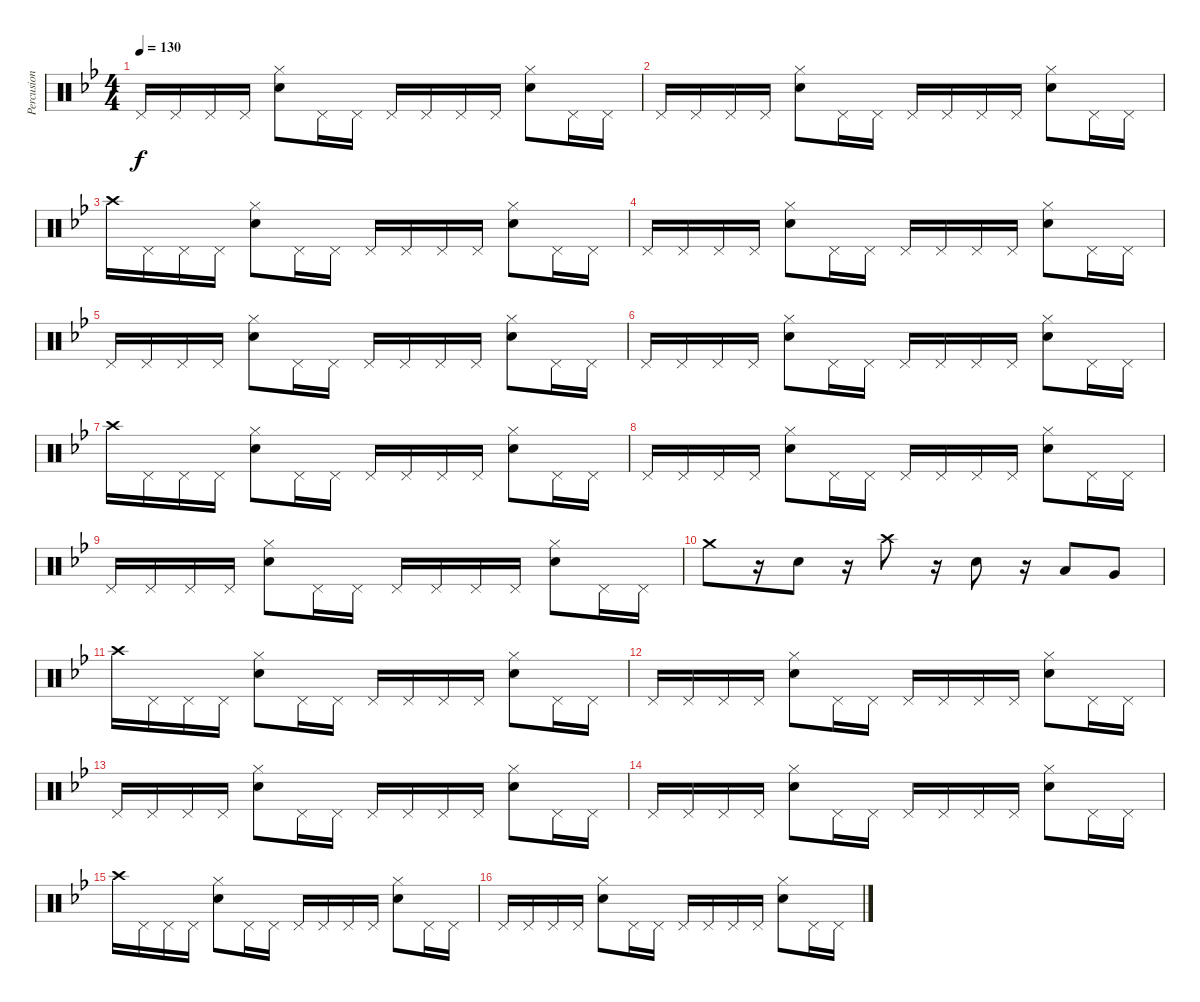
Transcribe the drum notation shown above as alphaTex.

\track ("Percusion I" "Percusion ") {instrument percussion}
\staff {score}
\articulation defaults
\ts (4 4)
\tempo 130
\clef neutral
\ks gminor "Pedal Hi-Hat (hit)".16{dy f} "Pedal Hi-Hat (hit)".16 "Pedal Hi-Hat (hit)".16 "Pedal Hi-Hat (hit)".16
("Hi-Hat (closed)" "Snare (hit) 2").8 "Pedal Hi-Hat (hit)".16 "Pedal Hi-Hat (hit)".16 "Pedal Hi-Hat (hit)".16 "Pedal Hi-Hat (hit)".16 "Pedal Hi-Hat (hit)".16 "Pedal Hi-Hat (hit)".16 ("Snare (hit) 2" "Hi-Hat (closed)").8 "Pedal Hi-Hat (hit)".16 "Pedal Hi-Hat (hit)".16 |
"Pedal Hi-Hat (hit)".16 "Pedal Hi-Hat (hit)".16 "Pedal Hi-Hat (hit)".16 "Pedal Hi-Hat (hit)".16 ("Hi-Hat (closed)" "Snare (hit) 2").8 "Pedal Hi-Hat (hit)".16 "Pedal Hi-Hat (hit)".16 "Pedal Hi-Hat (hit)".16 "Pedal Hi-Hat (hit)".16 "Pedal Hi-Hat (hit)".16 "Pedal Hi-Hat (hit)".16 ("Snare (hit) 2" "Hi-Hat (closed)").8 "Pedal Hi-Hat (hit)".16 "Pedal Hi-Hat (hit)".16 |
"Crash high (hit)".16 "Pedal Hi-Hat (hit)".16 "Pedal Hi-Hat (hit)".16 "Pedal Hi-Hat (hit)".16 ("Snare (hit) 2" "Hi-Hat (closed)").8 "Pedal Hi-Hat (hit)".16 "Pedal Hi-Hat (hit)".16 "Pedal Hi-Hat (hit)".16 "Pedal Hi-Hat (hit)".16 "Pedal Hi-Hat (hit)".16 "Pedal Hi-Hat (hit)".16 ("Snare (hit) 2" "Hi-Hat (closed)").8 "Pedal Hi-Hat (hit)".16 "Pedal Hi-Hat (hit)".16 |
"Pedal Hi-Hat (hit)".16 "Pedal Hi-Hat (hit)".16 "Pedal Hi-Hat (hit)".16 "Pedal Hi-Hat (hit)".16 ("Hi-Hat (closed)" "Snare (hit) 2").8 "Pedal Hi-Hat (hit)".16 "Pedal Hi-Hat (hit)".16 "Pedal Hi-Hat (hit)".16 "Pedal Hi-Hat (hit)".16 "Pedal Hi-Hat (hit)".16 "Pedal Hi-Hat (hit)".16 ("Snare (hit) 2" "Hi-Hat (closed)").8 "Pedal Hi-Hat (hit)".16 "Pedal Hi-Hat (hit)".16 |
"Pedal Hi-Hat (hit)".16 "Pedal Hi-Hat (hit)".16 "Pedal Hi-Hat (hit)".16 "Pedal Hi-Hat (hit)".16 ("Hi-Hat (closed)" "Snare (hit) 2").8 "Pedal Hi-Hat (hit)".16 "Pedal Hi-Hat (hit)".16 "Pedal Hi-Hat (hit)".16 "Pedal Hi-Hat (hit)".16 "Pedal Hi-Hat (hit)".16 "Pedal Hi-Hat (hit)".16 ("Snare (hit) 2" "Hi-Hat (closed)").8 "Pedal Hi-Hat (hit)".16 "Pedal Hi-Hat (hit)".16 |
"Pedal Hi-Hat (hit)".16 "Pedal Hi-Hat (hit)".16 "Pedal Hi-Hat (hit)".16 "Pedal Hi-Hat (hit)".16 ("Snare (hit) 2" "Hi-Hat (closed)").8 "Pedal Hi-Hat (hit)".16 "Pedal Hi-Hat (hit)".16 "Pedal Hi-Hat (hit)".16 "Pedal Hi-Hat (hit)".16 "Pedal Hi-Hat (hit)".16 "Pedal Hi-Hat (hit)".16 ("Snare (hit) 2" "Hi-Hat (closed)").8 "Pedal Hi-Hat (hit)".16 "Pedal Hi-Hat (hit)".16 |
"Crash high (hit)".16 "Pedal Hi-Hat (hit)".16 "Pedal Hi-Hat (hit)".16 "Pedal Hi-Hat (hit)".16 ("Snare (hit) 2" "Hi-Hat (closed)").8 "Pedal Hi-Hat (hit)".16 "Pedal Hi-Hat (hit)".16 "Pedal Hi-Hat (hit)".16 "Pedal Hi-Hat (hit)".16 "Pedal Hi-Hat (hit)".16 "Pedal Hi-Hat (hit)".16 ("Hi-Hat (closed)" "Snare (hit) 2").8 "Pedal Hi-Hat (hit)".16 "Pedal Hi-Hat (hit)".16 |
"Pedal Hi-Hat (hit)".16 "Pedal Hi-Hat (hit)".16 "Pedal Hi-Hat (hit)".16 "Pedal Hi-Hat (hit)".16 ("Hi-Hat (closed)" "Snare (hit) 2").8 "Pedal Hi-Hat (hit)".16 "Pedal Hi-Hat (hit)".16 "Pedal Hi-Hat (hit)".16 "Pedal Hi-Hat (hit)".16 "Pedal Hi-Hat (hit)".16 "Pedal Hi-Hat (hit)".16 ("Hi-Hat (closed)" "Snare (hit) 2").8 "Pedal Hi-Hat (hit)".16 "Pedal Hi-Hat (hit)".16 |
"Pedal Hi-Hat (hit)".16 "Pedal Hi-Hat (hit)".16 "Pedal Hi-Hat (hit)".16 "Pedal Hi-Hat (hit)".16 ("Hi-Hat (closed)" "Snare (hit) 2").8 "Pedal Hi-Hat (hit)".16 "Pedal Hi-Hat (hit)".16 "Pedal Hi-Hat (hit)".16 "Pedal Hi-Hat (hit)".16 "Pedal Hi-Hat (hit)".16 "Pedal Hi-Hat (hit)".16 ("Snare (hit) 2" "Hi-Hat (closed)").8 "Pedal Hi-Hat (hit)".16 "Pedal Hi-Hat (hit)".16 |
"Crash medium (hit)".8 r.16 "Snare (hit) 2".8 r.16 "Crash high (hit)".8 r.16 "Snare (hit) 2".8 r.16 "Low Tom (hit)".8 "Very Low Tom (hit)".8 |
"Crash high (hit)".16 "Pedal Hi-Hat (hit)".16 "Pedal Hi-Hat (hit)".16 "Pedal Hi-Hat (hit)".16 ("Snare (hit) 2" "Hi-Hat (closed)").8 "Pedal Hi-Hat (hit)".16 "Pedal Hi-Hat (hit)".16 "Pedal Hi-Hat (hit)".16 "Pedal Hi-Hat (hit)".16 "Pedal Hi-Hat (hit)".16 "Pedal Hi-Hat (hit)".16 ("Snare (hit) 2" "Hi-Hat (closed)").8 "Pedal Hi-Hat (hit)".16 "Pedal Hi-Hat (hit)".16 |
"Pedal Hi-Hat (hit)".16 "Pedal Hi-Hat (hit)".16 "Pedal Hi-Hat (hit)".16 "Pedal Hi-Hat (hit)".16 ("Hi-Hat (closed)" "Snare (hit) 2").8 "Pedal Hi-Hat (hit)".16 "Pedal Hi-Hat (hit)".16 "Pedal Hi-Hat (hit)".16 "Pedal Hi-Hat (hit)".16 "Pedal Hi-Hat (hit)".16 "Pedal Hi-Hat (hit)".16 ("Snare (hit) 2" "Hi-Hat (closed)").8 "Pedal Hi-Hat (hit)".16 "Pedal Hi-Hat (hit)".16 |
"Pedal Hi-Hat (hit)".16 "Pedal Hi-Hat (hit)".16 "Pedal Hi-Hat (hit)".16 "Pedal Hi-Hat (hit)".16 ("Hi-Hat (closed)" "Snare (hit) 2").8 "Pedal Hi-Hat (hit)".16 "Pedal Hi-Hat (hit)".16 "Pedal Hi-Hat (hit)".16 "Pedal Hi-Hat (hit)".16 "Pedal Hi-Hat (hit)".16 "Pedal Hi-Hat (hit)".16 ("Snare (hit) 2" "Hi-Hat (closed)").8 "Pedal Hi-Hat (hit)".16 "Pedal Hi-Hat (hit)".16 |
"Pedal Hi-Hat (hit)".16 "Pedal Hi-Hat (hit)".16 "Pedal Hi-Hat (hit)".16 "Pedal Hi-Hat (hit)".16 ("Snare (hit) 2" "Hi-Hat (closed)").8 "Pedal Hi-Hat (hit)".16 "Pedal Hi-Hat (hit)".16 "Pedal Hi-Hat (hit)".16 "Pedal Hi-Hat (hit)".16 "Pedal Hi-Hat (hit)".16 "Pedal Hi-Hat (hit)".16 ("Snare (hit) 2" "Hi-Hat (closed)").8 "Pedal Hi-Hat (hit)".16 "Pedal Hi-Hat (hit)".16 |
"Crash high (hit)".16 "Pedal Hi-Hat (hit)".16 "Pedal Hi-Hat (hit)".16 "Pedal Hi-Hat (hit)".16 ("Snare (hit) 2" "Hi-Hat (closed)").8 "Pedal Hi-Hat (hit)".16 "Pedal Hi-Hat (hit)".16 "Pedal Hi-Hat (hit)".16 "Pedal Hi-Hat (hit)".16 "Pedal Hi-Hat (hit)".16 "Pedal Hi-Hat (hit)".16 ("Snare (hit) 2" "Hi-Hat (closed)").8 "Pedal Hi-Hat (hit)".16 "Pedal Hi-Hat (hit)".16 |
"Pedal Hi-Hat (hit)".16 "Pedal Hi-Hat (hit)".16 "Pedal Hi-Hat (hit)".16 "Pedal Hi-Hat (hit)".16 ("Hi-Hat (closed)" "Snare (hit) 2").8 "Pedal Hi-Hat (hit)".16 "Pedal Hi-Hat (hit)".16 "Pedal Hi-Hat (hit)".16 "Pedal Hi-Hat (hit)".16 "Pedal Hi-Hat (hit)".16 "Pedal Hi-Hat (hit)".16 ("Snare (hit) 2" "Hi-Hat (closed)").8 "Pedal Hi-Hat (hit)".16 "Pedal Hi-Hat (hit)".16
